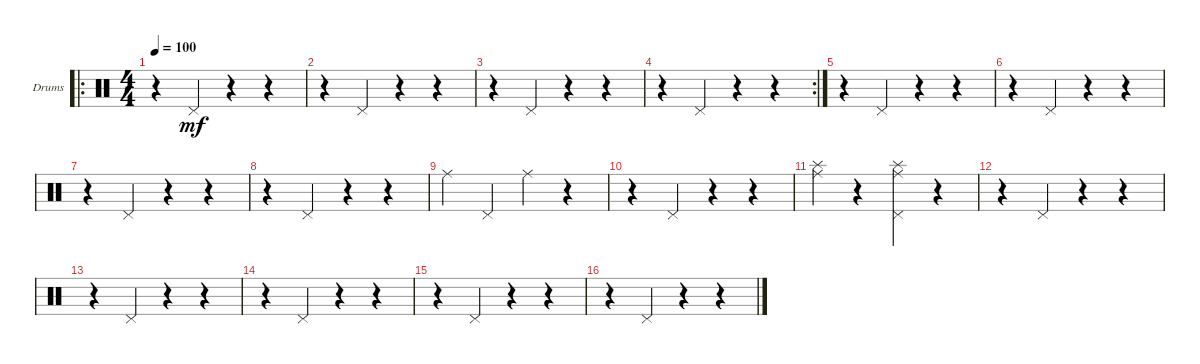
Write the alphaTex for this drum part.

\defaultSystemsLayout 4
\bracketExtendMode groupsimilarinstruments
\firstSystemTrackNameOrientation horizontal
\otherSystemsTrackNameOrientation horizontal
\track ("Joey Baron" "Drums") {instrument percussion}
\staff {score}
\articulation defaults
\ro
\ts (4 4)
\tempo 100
\clef neutral
\ks c
r.4{dy mf} "Pedal Hi-Hat (hit)".4 r.4 r.4 |
r.4 "Pedal Hi-Hat (hit)".4 r.4 r.4 |
r.4 "Pedal Hi-Hat (hit)".4 r.4 r.4 |
\rc 2
r.4 "Pedal Hi-Hat (hit)".4 r.4 r.4 |
r.4 "Pedal Hi-Hat (hit)".4 r.4 r.4 |
r.4 "Pedal Hi-Hat (hit)".4 r.4 r.4 |
r.4 "Pedal Hi-Hat (hit)".4 r.4 r.4 |
r.4 "Pedal Hi-Hat (hit)".4 r.4 r.4 |
"Ride (middle)".4 "Pedal Hi-Hat (hit)".4 "Ride (middle)".4 r.4 |
r.4 "Pedal Hi-Hat (hit)".4 r.4 r.4 |
("Ride (middle)" "Splash (hit)").4 r.4 ("Pedal Hi-Hat (hit)" "Ride (middle)" "Splash (hit)").4 r.4 |
r.4 "Pedal Hi-Hat (hit)".4 r.4 r.4 |
r.4 "Pedal Hi-Hat (hit)".4 r.4 r.4 |
r.4 "Pedal Hi-Hat (hit)".4 r.4 r.4 |
r.4 "Pedal Hi-Hat (hit)".4 r.4 r.4 |
r.4 "Pedal Hi-Hat (hit)".4 r.4 r.4
